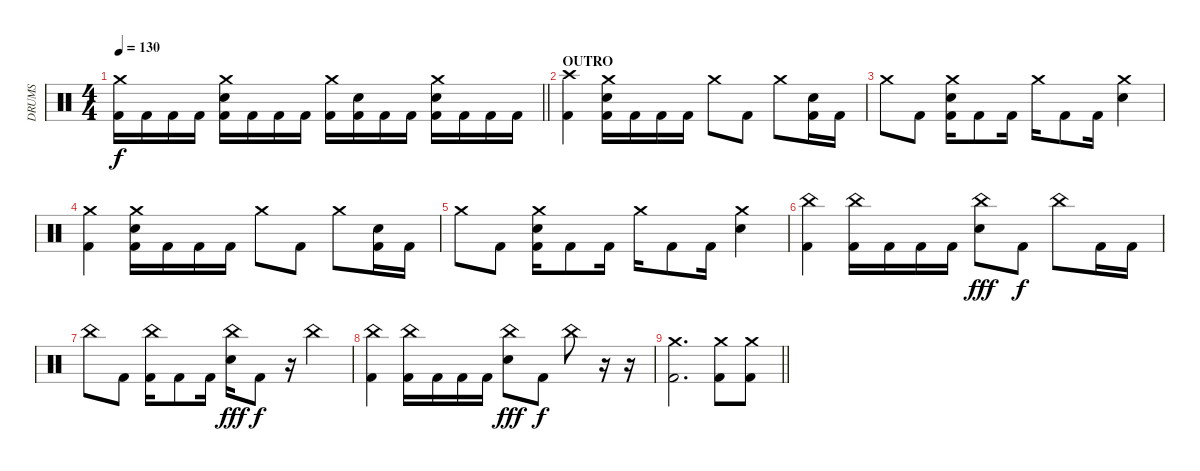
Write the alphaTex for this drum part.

\track ("DRUMS" "DRUMS") {instrument percussion}
\staff {score}
\articulation defaults
\ts (4 4)
\tempo 130
\clef neutral
\barLineRight lightlight
\ks c
("Crash medium (hit)" "Kick (hit) 2").16{dy f} "Kick (hit) 2".16 "Kick (hit) 2".16 "Kick (hit) 2".16 ("Crash medium (hit)" "Electric Snare (hit)" "Kick (hit) 2").16 "Kick (hit) 2".16 "Kick (hit) 2".16 "Kick (hit) 2".16 ("Crash medium (hit)" "Kick (hit) 2").16 ("Electric Snare (hit)" "Kick (hit) 2").16 "Kick (hit) 2".16 "Kick (hit) 2".16 ("Crash medium (hit)" "Electric Snare (hit)" "Kick (hit) 2").16 "Kick (hit) 2".16 "Kick (hit) 2".16 "Kick (hit) 2".16 |
\section ("" "OUTRO")
("Crash high (hit)" "Kick (hit) 2").4 ("Crash medium (hit)" "Electric Snare (hit)" "Kick (hit) 2").16 "Kick (hit) 2".16 "Kick (hit) 2".16 "Kick (hit) 2".16 "Crash medium (hit)".8 "Kick (hit) 2".8 "Crash medium (hit)".8 ("Electric Snare (hit)" "Kick (hit) 2").16 "Kick (hit) 2".16 |
"Crash medium (hit)".8 "Kick (hit) 2".8 ("Crash medium (hit)" "Electric Snare (hit)" "Kick (hit) 2").16 "Kick (hit) 2".8 "Kick (hit) 2".16 "Crash medium (hit)".16 "Kick (hit) 2".8 "Kick (hit) 2".16 ("Crash medium (hit)" "Electric Snare (hit)").4 |
("Crash medium (hit)" "Kick (hit) 2").4 ("Crash medium (hit)" "Electric Snare (hit)" "Kick (hit) 2").16 "Kick (hit) 2".16 "Kick (hit) 2".16 "Kick (hit) 2".16 "Crash medium (hit)".8 "Kick (hit) 2".8 "Crash medium (hit)".8 ("Electric Snare (hit)" "Kick (hit) 2").16 "Kick (hit) 2".16 |
"Crash medium (hit)".8 "Kick (hit) 2".8 ("Crash medium (hit)" "Electric Snare (hit)" "Kick (hit) 2").16 "Kick (hit) 2".8 "Kick (hit) 2".16 "Crash medium (hit)".16 "Kick (hit) 2".8 "Kick (hit) 2".16 ("Crash medium (hit)" "Electric Snare (hit)").4 |
("China (hit)" "Kick (hit) 2").4 ("China (hit)" "Kick (hit) 2").16 "Kick (hit) 2".16 "Kick (hit) 2".16 "Kick (hit) 2".16 ("China (hit)" "Electric Snare (hit)").8{dy fff} "Kick (hit) 2".8{dy f} "China (hit)".8 "Kick (hit) 2".16 "Kick (hit) 2".16 |
"China (hit)".8 "Kick (hit) 2".8 ("China (hit)" "Kick (hit) 2").16 "Kick (hit) 2".8 "Kick (hit) 2".16 ("China (hit)" "Electric Snare (hit)").16{dy fff} "Kick (hit) 2".8{dy f} r.16 "China (hit)".4 |
("China (hit)" "Kick (hit) 2").4 ("China (hit)" "Kick (hit) 2").16 "Kick (hit) 2".16 "Kick (hit) 2".16 "Kick (hit) 2".16 ("China (hit)" "Electric Snare (hit)").8{dy fff} "Kick (hit) 2".8{dy f} "China (hit)".8 r.16 r.16 |
\barLineRight lightlight
("Crash medium (hit)" "Kick (hit) 2").2{d} ("Crash medium (hit)" "Kick (hit) 2").8 ("Crash medium (hit)" "Kick (hit) 2").8
